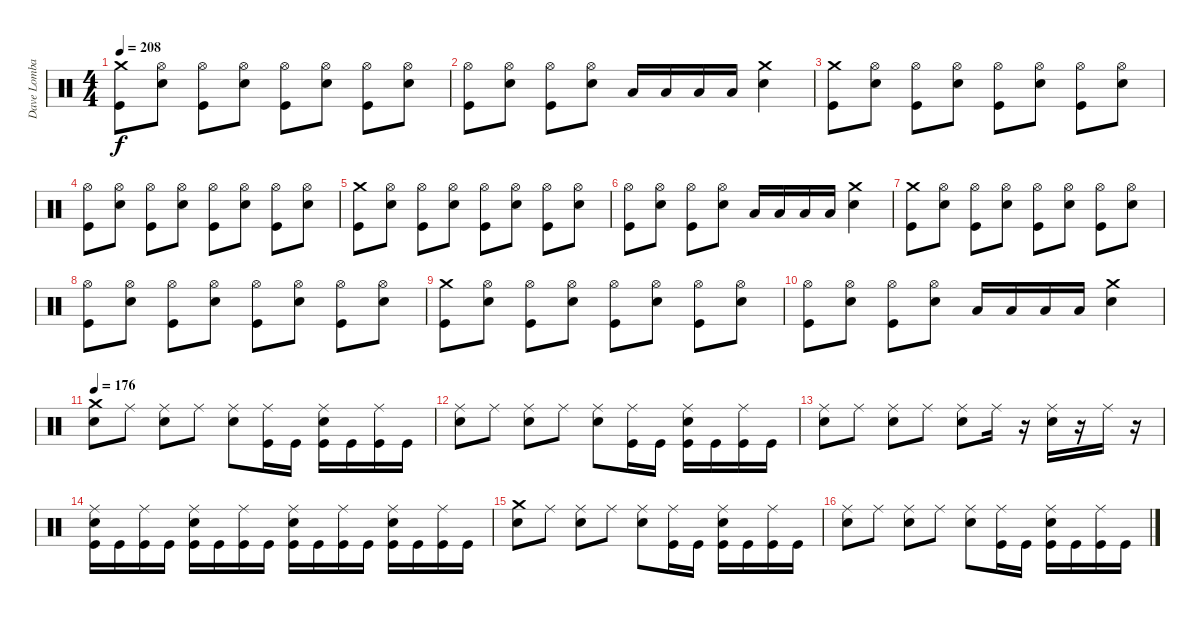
\track ("Dave Lombardo (Drum)" "Dave Lomba") {instrument percussion}
\staff {score}
\articulation defaults
\ts (4 4)
\tempo 208
\clef neutral
\ks c
("Crash medium (hit)" "Kick (hit)").8{dy f} ("Snare (hit) 2" "Hi-Hat (open)").8 ("Kick (hit)" "Hi-Hat (open)").8 ("Snare (hit) 2" "Hi-Hat (open)").8 ("Kick (hit)" "Hi-Hat (open)").8 ("Snare (hit) 2" "Hi-Hat (open)").8 ("Kick (hit)" "Hi-Hat (open)").8 ("Snare (hit) 2" "Hi-Hat (open)").8 |
("Hi-Hat (open)" "Kick (hit)").8 ("Snare (hit) 2" "Hi-Hat (open)").8 ("Kick (hit)" "Hi-Hat (open)").8 ("Snare (hit) 2" "Hi-Hat (open)").8 "Low Tom (hit)".16 "Low Tom (hit)".16 "Low Tom (hit)".16 "Low Tom (hit)".16 ("Crash medium (hit)" "Snare (hit) 2").4 |
("Crash medium (hit)" "Kick (hit)").8 ("Snare (hit) 2" "Hi-Hat (open)").8 ("Kick (hit)" "Hi-Hat (open)").8 ("Snare (hit) 2" "Hi-Hat (open)").8 ("Kick (hit)" "Hi-Hat (open)").8 ("Snare (hit) 2" "Hi-Hat (open)").8 ("Kick (hit)" "Hi-Hat (open)").8 ("Snare (hit) 2" "Hi-Hat (open)").8 |
("Hi-Hat (open)" "Kick (hit)").8 ("Snare (hit) 2" "Hi-Hat (open)").8 ("Kick (hit)" "Hi-Hat (open)").8 ("Snare (hit) 2" "Hi-Hat (open)").8 ("Kick (hit)" "Hi-Hat (open)").8 ("Snare (hit) 2" "Hi-Hat (open)").8 ("Kick (hit)" "Hi-Hat (open)").8 ("Snare (hit) 2" "Hi-Hat (open)").8 |
("Crash medium (hit)" "Kick (hit)").8 ("Snare (hit) 2" "Hi-Hat (open)").8 ("Kick (hit)" "Hi-Hat (open)").8 ("Snare (hit) 2" "Hi-Hat (open)").8 ("Kick (hit)" "Hi-Hat (open)").8 ("Snare (hit) 2" "Hi-Hat (open)").8 ("Kick (hit)" "Hi-Hat (open)").8 ("Snare (hit) 2" "Hi-Hat (open)").8 |
("Hi-Hat (open)" "Kick (hit)").8 ("Snare (hit) 2" "Hi-Hat (open)").8 ("Kick (hit)" "Hi-Hat (open)").8 ("Snare (hit) 2" "Hi-Hat (open)").8 "Low Tom (hit)".16 "Low Tom (hit)".16 "Low Tom (hit)".16 "Low Tom (hit)".16 ("Crash medium (hit)" "Snare (hit) 2").4 |
("Crash medium (hit)" "Kick (hit)").8 ("Snare (hit) 2" "Hi-Hat (open)").8 ("Kick (hit)" "Hi-Hat (open)").8 ("Snare (hit) 2" "Hi-Hat (open)").8 ("Kick (hit)" "Hi-Hat (open)").8 ("Snare (hit) 2" "Hi-Hat (open)").8 ("Kick (hit)" "Hi-Hat (open)").8 ("Snare (hit) 2" "Hi-Hat (open)").8 |
("Hi-Hat (open)" "Kick (hit)").8 ("Snare (hit) 2" "Hi-Hat (open)").8 ("Kick (hit)" "Hi-Hat (open)").8 ("Snare (hit) 2" "Hi-Hat (open)").8 ("Kick (hit)" "Hi-Hat (open)").8 ("Snare (hit) 2" "Hi-Hat (open)").8 ("Kick (hit)" "Hi-Hat (open)").8 ("Snare (hit) 2" "Hi-Hat (open)").8 |
("Crash medium (hit)" "Kick (hit)").8 ("Snare (hit) 2" "Hi-Hat (open)").8 ("Kick (hit)" "Hi-Hat (open)").8 ("Snare (hit) 2" "Hi-Hat (open)").8 ("Kick (hit)" "Hi-Hat (open)").8 ("Snare (hit) 2" "Hi-Hat (open)").8 ("Kick (hit)" "Hi-Hat (open)").8 ("Snare (hit) 2" "Hi-Hat (open)").8 |
("Hi-Hat (open)" "Kick (hit)").8 ("Snare (hit) 2" "Hi-Hat (open)").8 ("Kick (hit)" "Hi-Hat (open)").8 ("Snare (hit) 2" "Hi-Hat (open)").8 "Low Tom (hit)".16 "Low Tom (hit)".16 "Low Tom (hit)".16 "Low Tom (hit)".16 ("Crash medium (hit)" "Snare (hit) 2").4 |
\tempo 176
("Snare (hit) 2" "Crash medium (hit)").8 "Ride (middle)".8 ("Snare (hit) 2" "Ride (middle)").8 "Ride (middle)".8 ("Snare (hit) 2" "Ride (middle)").8 ("Kick (hit)" "Ride (middle)").16 "Kick (hit)".16 ("Kick (hit)" "Snare (hit) 2" "Ride (middle)").16 "Kick (hit)".16 ("Kick (hit)" "Ride (middle)").16 "Kick (hit)".16 |
("Snare (hit) 2" "Ride (middle)").8 "Ride (middle)".8 ("Snare (hit) 2" "Ride (middle)").8 "Ride (middle)".8 ("Snare (hit) 2" "Ride (middle)").8 ("Kick (hit)" "Ride (middle)").16 "Kick (hit)".16 ("Kick (hit)" "Snare (hit) 2" "Ride (middle)").16 "Kick (hit)".16 ("Kick (hit)" "Ride (middle)").16 "Kick (hit)".16 |
("Snare (hit) 2" "Ride (middle)").8 "Ride (middle)".8 ("Snare (hit) 2" "Ride (middle)").8 "Ride (middle)".8 ("Snare (hit) 2" "Ride (middle)").8 "Ride (middle)".16 r.16 ("Snare (hit) 2" "Ride (middle)").16 r.16 "Ride (middle)".16 r.16 |
("Kick (hit)" "Snare (hit) 2" "Ride (middle)").16 "Kick (hit)".16 ("Kick (hit)" "Ride (middle)").16 "Kick (hit)".16 ("Kick (hit)" "Snare (hit) 2" "Ride (middle)").16 "Kick (hit)".16 ("Kick (hit)" "Ride (middle)").16 "Kick (hit)".16 ("Kick (hit)" "Snare (hit) 2" "Ride (middle)").16 "Kick (hit)".16 ("Kick (hit)" "Ride (middle)").16 "Kick (hit)".16 ("Kick (hit)" "Snare (hit) 2" "Ride (middle)").16 "Kick (hit)".16 ("Kick (hit)" "Ride (middle)").16 "Kick (hit)".16 |
("Snare (hit) 2" "Crash medium (hit)").8 "Ride (middle)".8 ("Snare (hit) 2" "Ride (middle)").8 "Ride (middle)".8 ("Snare (hit) 2" "Ride (middle)").8 ("Kick (hit)" "Ride (middle)").16 "Kick (hit)".16 ("Kick (hit)" "Snare (hit) 2" "Ride (middle)").16 "Kick (hit)".16 ("Kick (hit)" "Ride (middle)").16 "Kick (hit)".16 |
("Snare (hit) 2" "Ride (middle)").8 "Ride (middle)".8 ("Snare (hit) 2" "Ride (middle)").8 "Ride (middle)".8 ("Snare (hit) 2" "Ride (middle)").8 ("Kick (hit)" "Ride (middle)").16 "Kick (hit)".16 ("Kick (hit)" "Snare (hit) 2" "Ride (middle)").16 "Kick (hit)".16 ("Kick (hit)" "Ride (middle)").16 "Kick (hit)".16
